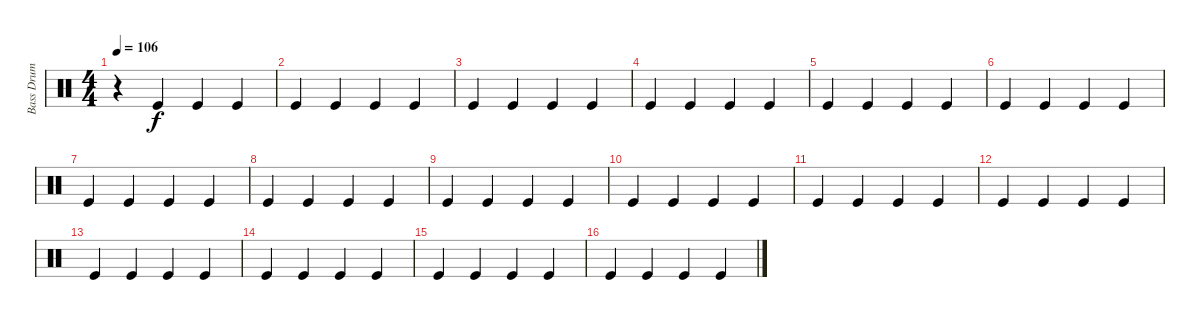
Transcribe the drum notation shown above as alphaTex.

\track ("Bass Drum" "Bass Drum") {instrument percussion}
\staff {score}
\articulation defaults
\ts (4 4)
\tempo 106
\clef neutral
\ks c
r.4{dy f} "Kick (hit)".4 "Kick (hit)".4 "Kick (hit)".4 |
"Kick (hit)".4 "Kick (hit)".4 "Kick (hit)".4 "Kick (hit)".4 |
"Kick (hit)".4 "Kick (hit)".4 "Kick (hit)".4 "Kick (hit)".4 |
"Kick (hit)".4 "Kick (hit)".4 "Kick (hit)".4 "Kick (hit)".4 |
"Kick (hit)".4 "Kick (hit)".4 "Kick (hit)".4 "Kick (hit)".4 |
"Kick (hit)".4 "Kick (hit)".4 "Kick (hit)".4 "Kick (hit)".4 |
"Kick (hit)".4 "Kick (hit)".4 "Kick (hit)".4 "Kick (hit)".4 |
"Kick (hit)".4 "Kick (hit)".4 "Kick (hit)".4 "Kick (hit)".4 |
"Kick (hit)".4 "Kick (hit)".4 "Kick (hit)".4 "Kick (hit)".4 |
"Kick (hit)".4 "Kick (hit)".4 "Kick (hit)".4 "Kick (hit)".4 |
"Kick (hit)".4 "Kick (hit)".4 "Kick (hit)".4 "Kick (hit)".4 |
"Kick (hit)".4 "Kick (hit)".4 "Kick (hit)".4 "Kick (hit)".4 |
"Kick (hit)".4 "Kick (hit)".4 "Kick (hit)".4 "Kick (hit)".4 |
"Kick (hit)".4 "Kick (hit)".4 "Kick (hit)".4 "Kick (hit)".4 |
"Kick (hit)".4 "Kick (hit)".4 "Kick (hit)".4 "Kick (hit)".4 |
"Kick (hit)".4 "Kick (hit)".4 "Kick (hit)".4 "Kick (hit)".4
